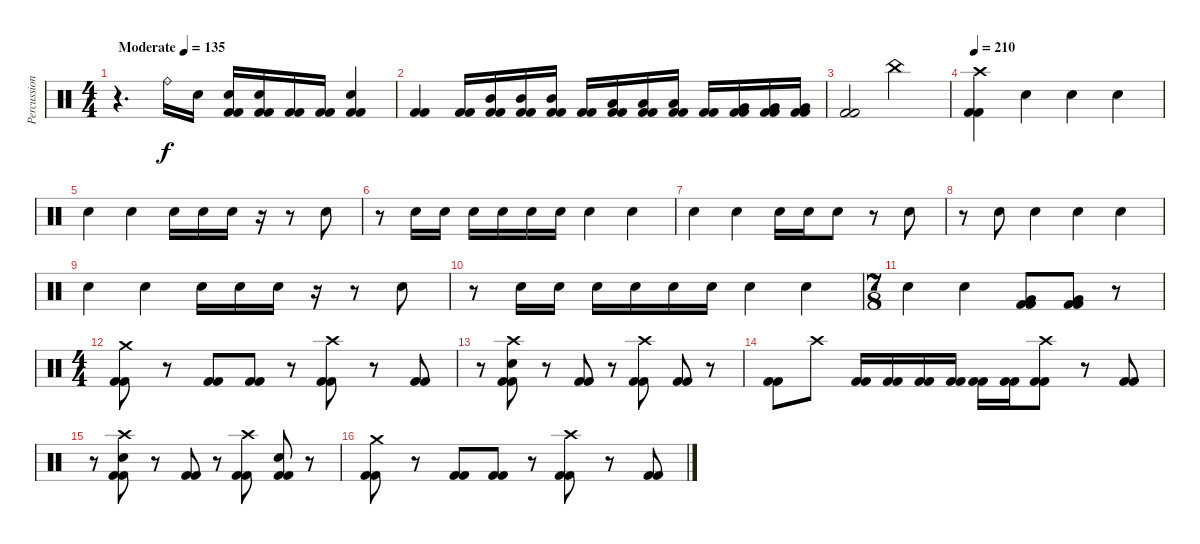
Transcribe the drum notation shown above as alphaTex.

\track ("Percussion" "Percussion") {instrument percussion}
\staff {score}
\articulation defaults
\ts (4 4)
\tempo (135 "Moderate")
\clef neutral
\ks c
r.4{d dy f} "Ride (bell)".16 "Electric Snare (hit)".16 ("Electric Snare (hit)" "Kick (hit) 2" "Kick (hit) 2").16 ("Electric Snare (hit)" "Kick (hit) 2" "Kick (hit) 2").16 ("Kick (hit) 2" "Kick (hit) 2").16 ("Kick (hit) 2" "Kick (hit) 2").16 ("Electric Snare (hit)" "Kick (hit) 2" "Kick (hit) 2").4 |
("Kick (hit) 2" "Kick (hit) 2").4 ("Kick (hit) 2" "Kick (hit) 2").16 ("Mid Tom (hit)" "Kick (hit) 2" "Kick (hit) 2").16 ("Mid Tom (hit)" "Kick (hit) 2" "Kick (hit) 2").16 ("Mid Tom (hit)" "Kick (hit) 2" "Kick (hit) 2").16 ("Kick (hit) 2" "Kick (hit) 2").16 ("Low Tom (hit)" "Kick (hit) 2" "Kick (hit) 2").16 ("Low Tom (hit)" "Kick (hit) 2" "Kick (hit) 2").16 ("Low Tom (hit)" "Kick (hit) 2" "Kick (hit) 2").16 ("Kick (hit) 2" "Kick (hit) 2").16 ("Very Low Tom (hit)" "Kick (hit) 2" "Kick (hit) 2").16 ("Very Low Tom (hit)" "Kick (hit) 2" "Kick (hit) 2").16 ("Very Low Tom (hit)" "Kick (hit) 2" "Kick (hit) 2").16 |
("Kick (hit) 2" "Kick (hit) 2").2 "China (hit)".2 |
\tempo 210
("Crash high (hit)" "Kick (hit) 2" "Kick (hit) 2").4 "Electric Snare (hit)".4 "Electric Snare (hit)".4 "Electric Snare (hit)".4 |
"Electric Snare (hit)".4 "Electric Snare (hit)".4 "Electric Snare (hit)".16 "Electric Snare (hit)".16 "Electric Snare (hit)".16 r.16 r.8 "Electric Snare (hit)".8 |
r.8 "Electric Snare (hit)".16 "Electric Snare (hit)".16 "Electric Snare (hit)".16 "Electric Snare (hit)".16 "Electric Snare (hit)".16 "Electric Snare (hit)".16 "Electric Snare (hit)".4 "Electric Snare (hit)".4 |
"Electric Snare (hit)".4 "Electric Snare (hit)".4 "Electric Snare (hit)".16 "Electric Snare (hit)".16 "Electric Snare (hit)".8 r.8 "Electric Snare (hit)".8 |
r.8 "Electric Snare (hit)".8 "Electric Snare (hit)".4 "Electric Snare (hit)".4 "Electric Snare (hit)".4 |
"Electric Snare (hit)".4 "Electric Snare (hit)".4 "Electric Snare (hit)".16 "Electric Snare (hit)".16 "Electric Snare (hit)".16 r.16 r.8 "Electric Snare (hit)".8 |
r.8 "Electric Snare (hit)".16 "Electric Snare (hit)".16 "Electric Snare (hit)".16 "Electric Snare (hit)".16 "Electric Snare (hit)".16 "Electric Snare (hit)".16 "Electric Snare (hit)".4 "Electric Snare (hit)".4 |
\ts (7 8)
"Electric Snare (hit)".4 "Electric Snare (hit)".4 ("Very Low Tom (hit)" "Kick (hit) 2" "Kick (hit) 2").8 ("Very Low Tom (hit)" "Kick (hit) 2" "Kick (hit) 2").8 r.8 |
\ts (4 4)
("Crash medium (hit)" "Kick (hit) 2" "Kick (hit) 2").8 r.8 ("Kick (hit) 2" "Kick (hit) 2").8 ("Kick (hit) 2" "Kick (hit) 2").8 r.8 ("Crash high (hit)" "Kick (hit) 2" "Kick (hit) 2").8 r.8 ("Kick (hit) 2" "Kick (hit) 2").8 |
r.8 ("Crash high (hit)" "Electric Snare (hit)" "Kick (hit) 2" "Kick (hit) 2").8 r.8 ("Kick (hit) 2" "Kick (hit) 2").8 r.8 ("Crash high (hit)" "Kick (hit) 2" "Kick (hit) 2").8 ("Kick (hit) 2" "Kick (hit) 2").8 r.8 |
("Kick (hit) 2" "Kick (hit) 2").8 "Crash high (hit)".8 ("Kick (hit) 2" "Kick (hit) 2").16 ("Kick (hit) 2" "Kick (hit) 2").16 ("Kick (hit) 2" "Kick (hit) 2").16 ("Kick (hit) 2" "Kick (hit) 2").16 ("Kick (hit) 2" "Kick (hit) 2").16 ("Kick (hit) 2" "Kick (hit) 2").16 ("Crash high (hit)" "Kick (hit) 2" "Kick (hit) 2").8 r.8 ("Kick (hit) 2" "Kick (hit) 2").8 |
r.8 ("Crash high (hit)" "Electric Snare (hit)" "Kick (hit) 2" "Kick (hit) 2").8 r.8 ("Kick (hit) 2" "Kick (hit) 2").8 r.8 ("Crash high (hit)" "Kick (hit) 2" "Kick (hit) 2").8 ("Electric Snare (hit)" "Kick (hit) 2" "Kick (hit) 2").8 r.8 |
("Crash medium (hit)" "Kick (hit) 2" "Kick (hit) 2").8 r.8 ("Kick (hit) 2" "Kick (hit) 2").8 ("Kick (hit) 2" "Kick (hit) 2").8 r.8 ("Crash high (hit)" "Kick (hit) 2" "Kick (hit) 2").8 r.8 ("Kick (hit) 2" "Kick (hit) 2").8
